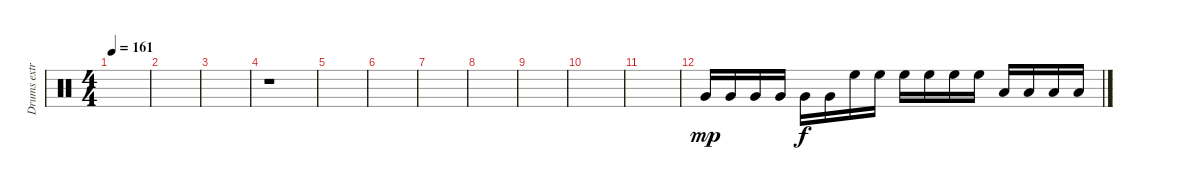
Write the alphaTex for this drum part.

\track ("Drums extra" "Drums extr") {instrument percussion}
\staff {score}
\articulation defaults
\ts (4 4)
\tempo 161
\clef neutral
\ks c
|
|
|
r.1 |
|
|
|
|
|
|
|
"Very Low Tom (hit)".16{dy mp} "Very Low Tom (hit)".16 "Very Low Tom (hit)".16 "Very Low Tom (hit)".16 "Very Low Tom (hit)".16{dy f} "Very Low Tom (hit)".16 "High Floor Tom (hit)".16 "High Floor Tom (hit)".16 "High Floor Tom (hit)".16 "High Floor Tom (hit)".16 "High Floor Tom (hit)".16 "High Floor Tom (hit)".16 "Low Floor Tom (hit)".16 "Low Floor Tom (hit)".16 "Low Floor Tom (hit)".16 "Low Floor Tom (hit)".16
